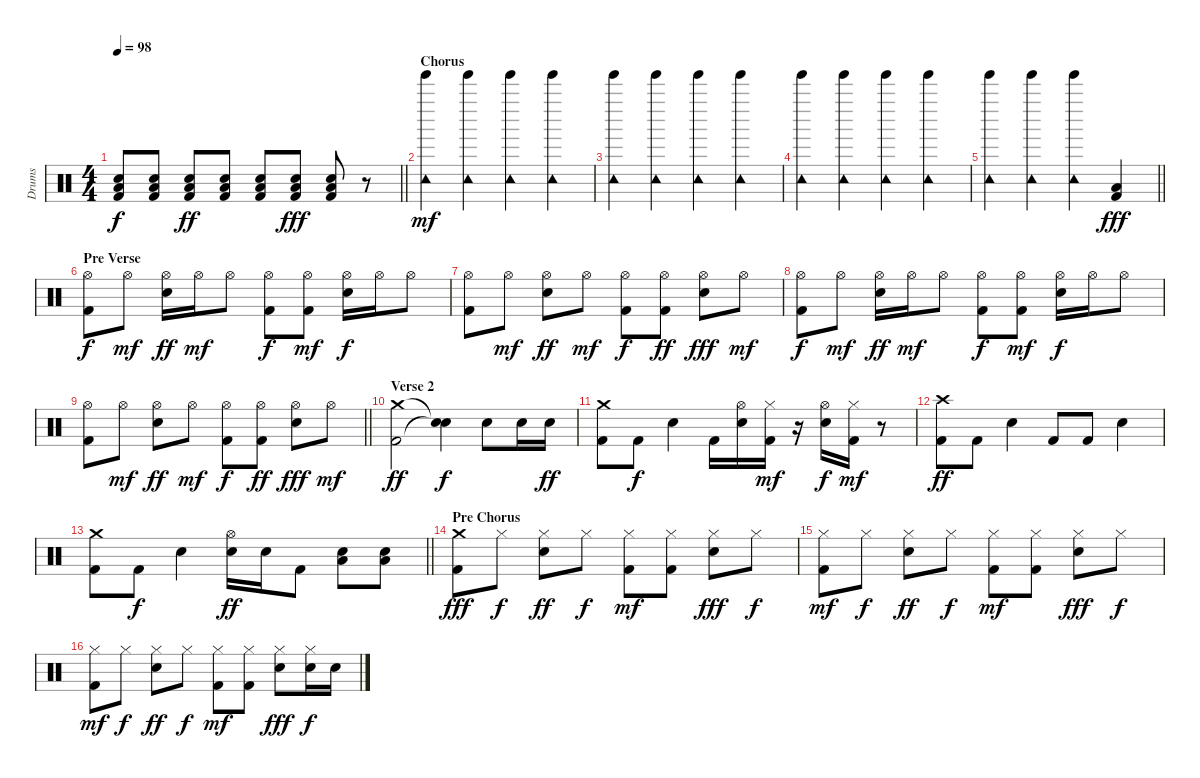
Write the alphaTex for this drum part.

\track ("Drums" "Drums") {instrument percussion}
\staff {score}
\articulation defaults
\ts (4 4)
\tempo 98
\clef neutral
\barLineRight lightlight
\ks c
("Electric Snare (hit)" "Low Floor Tom (hit)" "Kick (hit) 2").8{dy f} ("Electric Snare (hit)" "Low Floor Tom (hit)" "Kick (hit) 2").8 ("Electric Snare (hit)" "Low Floor Tom (hit)" "Kick (hit) 2").8{dy ff} ("Electric Snare (hit)" "Low Floor Tom (hit)" "Kick (hit) 2").8 ("Electric Snare (hit)" "Low Floor Tom (hit)" "Kick (hit) 2").8 ("Electric Snare (hit)" "Low Floor Tom (hit)" "Kick (hit) 2").8{dy fff} ("Electric Snare (hit)" "Low Floor Tom (hit)" "Kick (hit) 2").8 r.8 |
\section ("" "Chorus")
("Tambourine (hit)" "Tinkle Bell (hit)").4{dy mf} ("Tambourine (hit)" "Tinkle Bell (hit)").4 ("Tambourine (hit)" "Tinkle Bell (hit)").4 ("Tambourine (hit)" "Tinkle Bell (hit)").4 |
("Tambourine (hit)" "Tinkle Bell (hit)").4 ("Tambourine (hit)" "Tinkle Bell (hit)").4 ("Tambourine (hit)" "Tinkle Bell (hit)").4 ("Tambourine (hit)" "Tinkle Bell (hit)").4 |
("Tambourine (hit)" "Tinkle Bell (hit)").4 ("Tambourine (hit)" "Tinkle Bell (hit)").4 ("Tambourine (hit)" "Tinkle Bell (hit)").4 ("Tambourine (hit)" "Tinkle Bell (hit)").4 |
\barLineRight lightlight
("Tambourine (hit)" "Tinkle Bell (hit)").4 ("Tambourine (hit)" "Tinkle Bell (hit)").4 ("Tambourine (hit)" "Tinkle Bell (hit)").4 ("Low Floor Tom (hit)" "Kick (hit) 2").4{dy fff} |
\section ("" "Pre Verse")
("Hi-Hat (open)" "Kick (hit) 2").8{dy f} "Hi-Hat (open)".8{dy mf} ("Hi-Hat (open)" "Electric Snare (hit)").16{dy ff} "Hi-Hat (open)".16{dy mf} "Hi-Hat (open)".8 ("Hi-Hat (open)" "Kick (hit) 2").8{dy f} ("Hi-Hat (open)" "Kick (hit) 2").8{dy mf} ("Hi-Hat (open)" "Electric Snare (hit)").16{dy f} "Hi-Hat (open)".16 "Hi-Hat (open)".8 |
("Hi-Hat (open)" "Kick (hit) 2").8 "Hi-Hat (open)".8{dy mf} ("Hi-Hat (open)" "Electric Snare (hit)").8{dy ff} "Hi-Hat (open)".8{dy mf} ("Hi-Hat (open)" "Kick (hit) 2").8{dy f} ("Hi-Hat (open)" "Kick (hit) 2").8{dy ff} ("Hi-Hat (open)" "Electric Snare (hit)").8{dy fff} "Hi-Hat (open)".8{dy mf} |
("Hi-Hat (open)" "Kick (hit) 2").8{dy f} "Hi-Hat (open)".8{dy mf} ("Hi-Hat (open)" "Electric Snare (hit)").16{dy ff} "Hi-Hat (open)".16{dy mf} "Hi-Hat (open)".8 ("Hi-Hat (open)" "Kick (hit) 2").8{dy f} ("Hi-Hat (open)" "Kick (hit) 2").8{dy mf} ("Hi-Hat (open)" "Electric Snare (hit)").16{dy f} "Hi-Hat (open)".16 "Hi-Hat (open)".8 |
\barLineRight lightlight
("Hi-Hat (open)" "Kick (hit) 2").8 "Hi-Hat (open)".8{dy mf} ("Hi-Hat (open)" "Electric Snare (hit)").8{dy ff} "Hi-Hat (open)".8{dy mf} ("Hi-Hat (open)" "Kick (hit) 2").8{dy f} ("Hi-Hat (open)" "Kick (hit) 2").8{dy ff} ("Hi-Hat (open)" "Electric Snare (hit)").8{dy fff} "Hi-Hat (open)".8{dy mf} |
\section ("" "Verse 2")
("Crash medium (hit)" "Kick (hit) 2").2{dy ff} ("Snare (hit)"{t} "Snare (hit)"{t}).4{dy f} "Electric Snare (hit)".8 "Electric Snare (hit)".16 "Electric Snare (hit)".16{dy ff} |
("Crash medium (hit)" "Kick (hit) 2").8 "Kick (hit) 2".8{dy f} "Electric Snare (hit)".4 "Kick (hit) 2".16 ("Hi-Hat (open)" "Electric Snare (hit)").16 ("Hi-Hat (closed)" "Kick (hit) 2").16{dy mf} r.16 ("Hi-Hat (open)" "Electric Snare (hit)").16{dy f} ("Hi-Hat (closed)" "Kick (hit) 2").16{dy mf} r.8 |
("Crash high (hit)" "Kick (hit) 2").8{dy ff} "Kick (hit) 2".8 "Electric Snare (hit)".4 "Kick (hit) 2".8 "Kick (hit) 2".8 "Electric Snare (hit)".4 |
\barLineRight lightlight
("Crash medium (hit)" "Kick (hit) 2").8 "Kick (hit) 2".8{dy f} "Electric Snare (hit)".4 ("Hi-Hat (open)" "Electric Snare (hit)").16{dy ff} "Electric Snare (hit)".16 "Kick (hit) 2".8 ("Electric Snare (hit)" "Low Floor Tom (hit)").8 ("Electric Snare (hit)" "Low Floor Tom (hit)").8 |
\section ("" "Pre Chorus")
("Crash medium (hit)" "Kick (hit) 2").8{dy fff} "Hi-Hat (closed)".8{dy f} ("Hi-Hat (closed)" "Electric Snare (hit)").8{dy ff} "Hi-Hat (closed)".8{dy f} ("Hi-Hat (closed)" "Kick (hit) 2").8{dy mf} ("Hi-Hat (closed)" "Kick (hit) 2").8 ("Hi-Hat (closed)" "Electric Snare (hit)").8{dy fff} "Hi-Hat (closed)".8{dy f} |
("Hi-Hat (closed)" "Kick (hit) 2").8{dy mf} "Hi-Hat (closed)".8{dy f} ("Hi-Hat (closed)" "Electric Snare (hit)").8{dy ff} "Hi-Hat (closed)".8{dy f} ("Hi-Hat (closed)" "Kick (hit) 2").8{dy mf} ("Hi-Hat (closed)" "Kick (hit) 2").8 ("Hi-Hat (closed)" "Electric Snare (hit)").8{dy fff} "Hi-Hat (closed)".8{dy f} |
("Hi-Hat (closed)" "Kick (hit) 2").8{dy mf} "Hi-Hat (closed)".8{dy f} ("Hi-Hat (closed)" "Electric Snare (hit)").8{dy ff} "Hi-Hat (closed)".8{dy f} ("Hi-Hat (closed)" "Kick (hit) 2").8{dy mf} ("Hi-Hat (closed)" "Kick (hit) 2").8 ("Hi-Hat (closed)" "Electric Snare (hit)").8{dy fff} ("Hi-Hat (closed)" "Electric Snare (hit)").16{dy f} "Electric Snare (hit)".16
